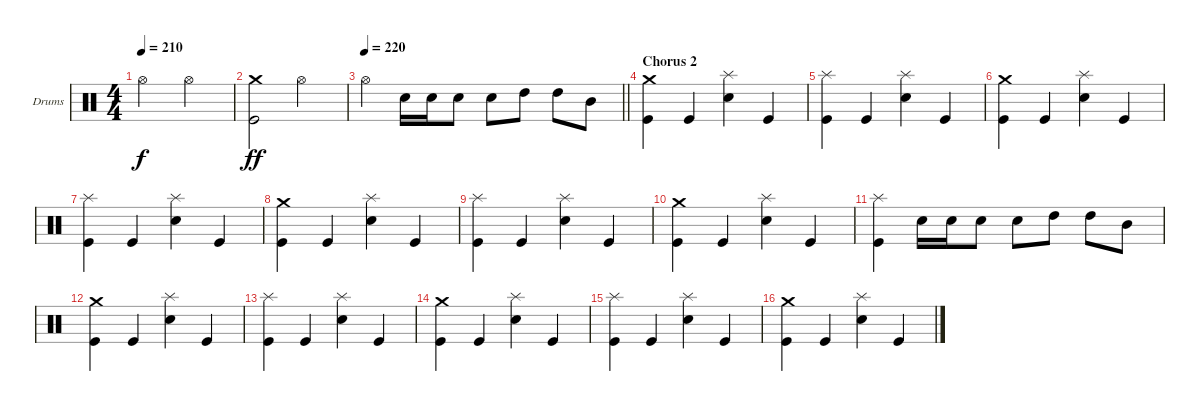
\bracketExtendMode groupsimilarinstruments
\firstSystemTrackNameOrientation horizontal
\otherSystemsTrackNameOrientation horizontal
\track ("Drumkit" "Drums") {instrument percussion}
\staff {score}
\articulation defaults
\ts (4 4)
\tempo 210
\clef neutral
\ks c "Hi-Hat (open)".2{dy f} "Hi-Hat (open)".2
|
("Crash medium (hit)" "Kick (hit)").2{dy ff} "Hi-Hat (open)".2 |
\tempo 220
\barLineRight lightlight "Hi-Hat (open)".4 "Snare (hit) 2".16 "Snare (hit) 2".16 "Snare (hit) 2".8 "Snare (hit) 2".8 "High Tom (hit)".8 "High Tom (hit)".8 "Mid Tom (hit)".8
|
\section ("" "Chorus 2")
("Crash medium (hit)" "Kick (hit)").4 "Kick (hit)".4 ("Splash (hit)" "Snare (hit) 2").4 "Kick (hit)".4 |
("Splash (hit)" "Kick (hit)").4 "Kick (hit)".4 ("Splash (hit)" "Snare (hit) 2").4 "Kick (hit)".4 |
("Crash medium (hit)" "Kick (hit)").4 "Kick (hit)".4 ("Splash (hit)" "Snare (hit) 2").4 "Kick (hit)".4 |
("Splash (hit)" "Kick (hit)").4 "Kick (hit)".4 ("Splash (hit)" "Snare (hit) 2").4 "Kick (hit)".4 |
("Crash medium (hit)" "Kick (hit)").4 "Kick (hit)".4 ("Splash (hit)" "Snare (hit) 2").4 "Kick (hit)".4 |
("Splash (hit)" "Kick (hit)").4 "Kick (hit)".4 ("Splash (hit)" "Snare (hit) 2").4 "Kick (hit)".4 |
("Crash medium (hit)" "Kick (hit)").4 "Kick (hit)".4 ("Splash (hit)" "Snare (hit) 2").4 "Kick (hit)".4 |
("Splash (hit)" "Kick (hit)").4 "Snare (hit) 2".16 "Snare (hit) 2".16 "Snare (hit) 2".8 "Snare (hit) 2".8 "High Tom (hit)".8 "High Tom (hit)".8 "Mid Tom (hit)".8 |
("Crash medium (hit)" "Kick (hit)").4 "Kick (hit)".4 ("Splash (hit)" "Snare (hit) 2").4 "Kick (hit)".4 |
("Splash (hit)" "Kick (hit)").4 "Kick (hit)".4 ("Splash (hit)" "Snare (hit) 2").4 "Kick (hit)".4 |
("Crash medium (hit)" "Kick (hit)").4 "Kick (hit)".4 ("Splash (hit)" "Snare (hit) 2").4 "Kick (hit)".4 |
("Splash (hit)" "Kick (hit)").4 "Kick (hit)".4 ("Splash (hit)" "Snare (hit) 2").4 "Kick (hit)".4 |
("Crash medium (hit)" "Kick (hit)").4 "Kick (hit)".4 ("Splash (hit)" "Snare (hit) 2").4 "Kick (hit)".4
